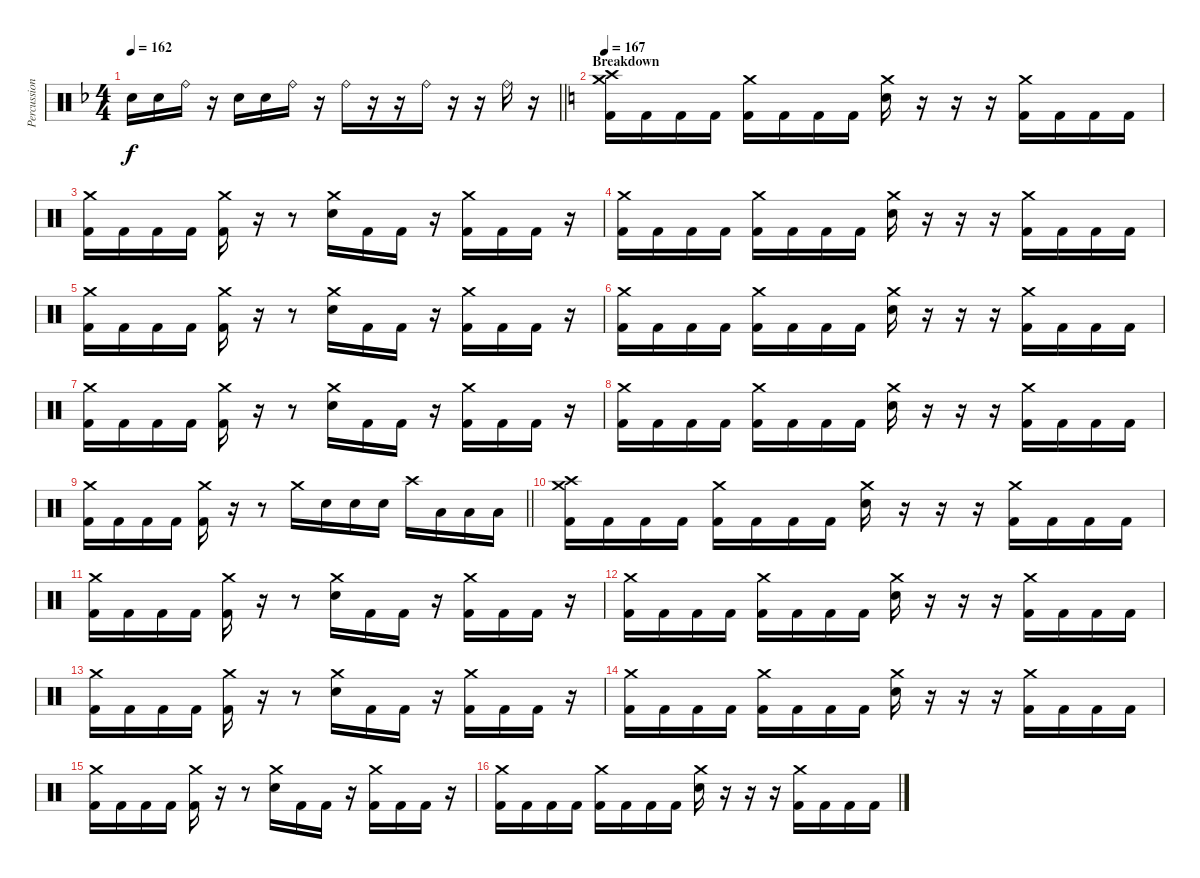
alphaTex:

\track ("Percussion" "Percussion") {instrument percussion}
\staff {score}
\articulation defaults
\ts (4 4)
\tempo 162
\clef neutral
\barLineRight lightlight
\ks f "Electric Snare (hit)".16{dy f} "Electric Snare (hit)".16 "Ride (bell)".16
r.16 "Electric Snare (hit)".16 "Electric Snare (hit)".16 "Ride (bell)".16 r.16 "Ride (bell)".16 r.16 r.16 "Ride (bell)".16 r.16 r.16 "Ride (bell)".16 r.16 |
\section ("" "Breakdown")
\tempo 167
\ks c
("Crash medium (hit)" "Crash high (hit)" "Kick (hit) 2").16 "Kick (hit) 2".16 "Kick (hit) 2".16 "Kick (hit) 2".16 ("Crash medium (hit)" "Kick (hit) 2").16 "Kick (hit) 2".16 "Kick (hit) 2".16 "Kick (hit) 2".16 ("Crash medium (hit)" "Electric Snare (hit)").16 r.16 r.16 r.16 ("Crash medium (hit)" "Kick (hit) 2").16 "Kick (hit) 2".16 "Kick (hit) 2".16 "Kick (hit) 2".16 |
("Crash medium (hit)" "Kick (hit) 2").16 "Kick (hit) 2".16 "Kick (hit) 2".16 "Kick (hit) 2".16 ("Crash medium (hit)" "Kick (hit) 2").16 r.16 r.8 ("Crash medium (hit)" "Electric Snare (hit)").16 "Kick (hit) 2".16 "Kick (hit) 2".16 r.16 ("Crash medium (hit)" "Kick (hit) 2").16 "Kick (hit) 2".16 "Kick (hit) 2".16 r.16 |
("Crash medium (hit)" "Kick (hit) 2").16 "Kick (hit) 2".16 "Kick (hit) 2".16 "Kick (hit) 2".16 ("Crash medium (hit)" "Kick (hit) 2").16 "Kick (hit) 2".16 "Kick (hit) 2".16 "Kick (hit) 2".16 ("Crash medium (hit)" "Electric Snare (hit)").16 r.16 r.16 r.16 ("Crash medium (hit)" "Kick (hit) 2").16 "Kick (hit) 2".16 "Kick (hit) 2".16 "Kick (hit) 2".16 |
("Crash medium (hit)" "Kick (hit) 2").16 "Kick (hit) 2".16 "Kick (hit) 2".16 "Kick (hit) 2".16 ("Crash medium (hit)" "Kick (hit) 2").16 r.16 r.8 ("Crash medium (hit)" "Electric Snare (hit)").16 "Kick (hit) 2".16 "Kick (hit) 2".16 r.16 ("Crash medium (hit)" "Kick (hit) 2").16 "Kick (hit) 2".16 "Kick (hit) 2".16 r.16 |
("Crash medium (hit)" "Kick (hit) 2").16 "Kick (hit) 2".16 "Kick (hit) 2".16 "Kick (hit) 2".16 ("Crash medium (hit)" "Kick (hit) 2").16 "Kick (hit) 2".16 "Kick (hit) 2".16 "Kick (hit) 2".16 ("Crash medium (hit)" "Electric Snare (hit)").16 r.16 r.16 r.16 ("Crash medium (hit)" "Kick (hit) 2").16 "Kick (hit) 2".16 "Kick (hit) 2".16 "Kick (hit) 2".16 |
("Crash medium (hit)" "Kick (hit) 2").16 "Kick (hit) 2".16 "Kick (hit) 2".16 "Kick (hit) 2".16 ("Crash medium (hit)" "Kick (hit) 2").16 r.16 r.8 ("Crash medium (hit)" "Electric Snare (hit)").16 "Kick (hit) 2".16 "Kick (hit) 2".16 r.16 ("Crash medium (hit)" "Kick (hit) 2").16 "Kick (hit) 2".16 "Kick (hit) 2".16 r.16 |
("Crash medium (hit)" "Kick (hit) 2").16 "Kick (hit) 2".16 "Kick (hit) 2".16 "Kick (hit) 2".16 ("Crash medium (hit)" "Kick (hit) 2").16 "Kick (hit) 2".16 "Kick (hit) 2".16 "Kick (hit) 2".16 ("Crash medium (hit)" "Electric Snare (hit)").16 r.16 r.16 r.16 ("Crash medium (hit)" "Kick (hit) 2").16 "Kick (hit) 2".16 "Kick (hit) 2".16 "Kick (hit) 2".16 |
\barLineRight lightlight
("Crash medium (hit)" "Kick (hit) 2").16 "Kick (hit) 2".16 "Kick (hit) 2".16 "Kick (hit) 2".16 ("Crash medium (hit)" "Kick (hit) 2").16 r.16 r.8 "Crash medium (hit)".16 "Electric Snare (hit)".16 "Electric Snare (hit)".16 "Electric Snare (hit)".16 "Crash high (hit)".16 "Low Tom (hit)".16 "Low Tom (hit)".16 "Low Tom (hit)".16 |
("Crash medium (hit)" "Crash high (hit)" "Kick (hit) 2").16 "Kick (hit) 2".16 "Kick (hit) 2".16 "Kick (hit) 2".16 ("Crash medium (hit)" "Kick (hit) 2").16 "Kick (hit) 2".16 "Kick (hit) 2".16 "Kick (hit) 2".16 ("Crash medium (hit)" "Electric Snare (hit)").16 r.16 r.16 r.16 ("Crash medium (hit)" "Kick (hit) 2").16 "Kick (hit) 2".16 "Kick (hit) 2".16 "Kick (hit) 2".16 |
("Crash medium (hit)" "Kick (hit) 2").16 "Kick (hit) 2".16 "Kick (hit) 2".16 "Kick (hit) 2".16 ("Crash medium (hit)" "Kick (hit) 2").16 r.16 r.8 ("Crash medium (hit)" "Electric Snare (hit)").16 "Kick (hit) 2".16 "Kick (hit) 2".16 r.16 ("Crash medium (hit)" "Kick (hit) 2").16 "Kick (hit) 2".16 "Kick (hit) 2".16 r.16 |
("Crash medium (hit)" "Kick (hit) 2").16 "Kick (hit) 2".16 "Kick (hit) 2".16 "Kick (hit) 2".16 ("Crash medium (hit)" "Kick (hit) 2").16 "Kick (hit) 2".16 "Kick (hit) 2".16 "Kick (hit) 2".16 ("Crash medium (hit)" "Electric Snare (hit)").16 r.16 r.16 r.16 ("Crash medium (hit)" "Kick (hit) 2").16 "Kick (hit) 2".16 "Kick (hit) 2".16 "Kick (hit) 2".16 |
("Crash medium (hit)" "Kick (hit) 2").16 "Kick (hit) 2".16 "Kick (hit) 2".16 "Kick (hit) 2".16 ("Crash medium (hit)" "Kick (hit) 2").16 r.16 r.8 ("Crash medium (hit)" "Electric Snare (hit)").16 "Kick (hit) 2".16 "Kick (hit) 2".16 r.16 ("Crash medium (hit)" "Kick (hit) 2").16 "Kick (hit) 2".16 "Kick (hit) 2".16 r.16 |
("Crash medium (hit)" "Kick (hit) 2").16 "Kick (hit) 2".16 "Kick (hit) 2".16 "Kick (hit) 2".16 ("Crash medium (hit)" "Kick (hit) 2").16 "Kick (hit) 2".16 "Kick (hit) 2".16 "Kick (hit) 2".16 ("Crash medium (hit)" "Electric Snare (hit)").16 r.16 r.16 r.16 ("Crash medium (hit)" "Kick (hit) 2").16 "Kick (hit) 2".16 "Kick (hit) 2".16 "Kick (hit) 2".16 |
("Crash medium (hit)" "Kick (hit) 2").16 "Kick (hit) 2".16 "Kick (hit) 2".16 "Kick (hit) 2".16 ("Crash medium (hit)" "Kick (hit) 2").16 r.16 r.8 ("Crash medium (hit)" "Electric Snare (hit)").16 "Kick (hit) 2".16 "Kick (hit) 2".16 r.16 ("Crash medium (hit)" "Kick (hit) 2").16 "Kick (hit) 2".16 "Kick (hit) 2".16 r.16 |
("Crash medium (hit)" "Kick (hit) 2").16 "Kick (hit) 2".16 "Kick (hit) 2".16 "Kick (hit) 2".16 ("Crash medium (hit)" "Kick (hit) 2").16 "Kick (hit) 2".16 "Kick (hit) 2".16 "Kick (hit) 2".16 ("Crash medium (hit)" "Electric Snare (hit)").16 r.16 r.16 r.16 ("Crash medium (hit)" "Kick (hit) 2").16 "Kick (hit) 2".16 "Kick (hit) 2".16 "Kick (hit) 2".16
